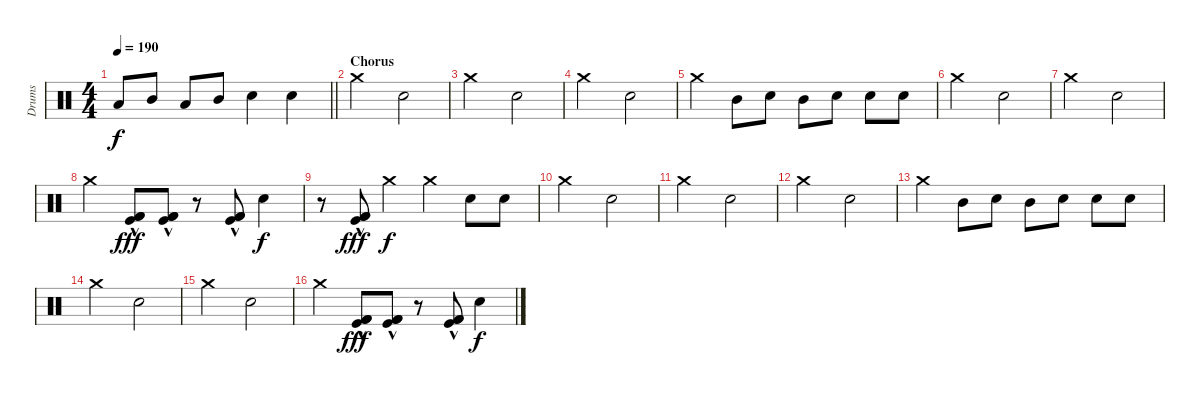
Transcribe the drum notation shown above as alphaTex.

\track ("Drums" "Drums") {instrument percussion}
\staff {score}
\articulation defaults
\ts (4 4)
\tempo 190
\clef neutral
\barLineRight lightlight
\ks c "Low Tom (hit)".8{dy f} "Mid Tom (hit)".8 "Low Tom (hit)".8 "Mid Tom (hit)".8 "Snare (hit) 2".4 "Snare (hit) 2".4
|
\section ("" "Chorus")
"Crash medium (hit)".2 "Snare (hit) 2".2 |
"Crash medium (hit)".2 "Snare (hit) 2".2 |
"Crash medium (hit)".2 "Snare (hit) 2".2 |
"Crash medium (hit)".4 "Mid Tom (hit)".8 "Snare (hit) 2".8 "Mid Tom (hit)".8 "Snare (hit) 2".8 "Snare (hit) 2".8 "Snare (hit) 2".8 |
"Crash medium (hit)".2 "Snare (hit) 2".2 |
"Crash medium (hit)".2 "Snare (hit) 2".2 |
"Crash medium (hit)".4 ("Kick (hit) 2"{hac} "Kick (hit)"{hac} "Kick (hit) 2"{hac}).8{dy fff} ("Kick (hit) 2"{hac} "Kick (hit)"{hac} "Kick (hit) 2"{hac}).8 r.8 ("Kick (hit) 2"{hac} "Kick (hit)"{hac} "Kick (hit) 2"{hac}).8 "Snare (hit) 2".4{dy f} |
r.8 ("Kick (hit) 2"{hac} "Kick (hit)"{hac} "Kick (hit) 2"{hac}).8{dy fff} "Crash medium (hit)".4{dy f} "Crash medium (hit)".4 "Snare (hit) 2".8 "Snare (hit) 2".8 |
"Crash medium (hit)".2 "Snare (hit) 2".2 |
"Crash medium (hit)".2 "Snare (hit) 2".2 |
"Crash medium (hit)".2 "Snare (hit) 2".2 |
"Crash medium (hit)".4 "Mid Tom (hit)".8 "Snare (hit) 2".8 "Mid Tom (hit)".8 "Snare (hit) 2".8 "Snare (hit) 2".8 "Snare (hit) 2".8 |
"Crash medium (hit)".2 "Snare (hit) 2".2 |
"Crash medium (hit)".2 "Snare (hit) 2".2 |
"Crash medium (hit)".4 ("Kick (hit) 2"{hac} "Kick (hit)"{hac} "Kick (hit) 2"{hac}).8{dy fff} ("Kick (hit) 2"{hac} "Kick (hit)"{hac} "Kick (hit) 2"{hac}).8 r.8 ("Kick (hit) 2"{hac} "Kick (hit)"{hac} "Kick (hit) 2"{hac}).8 "Snare (hit) 2".4{dy f}
